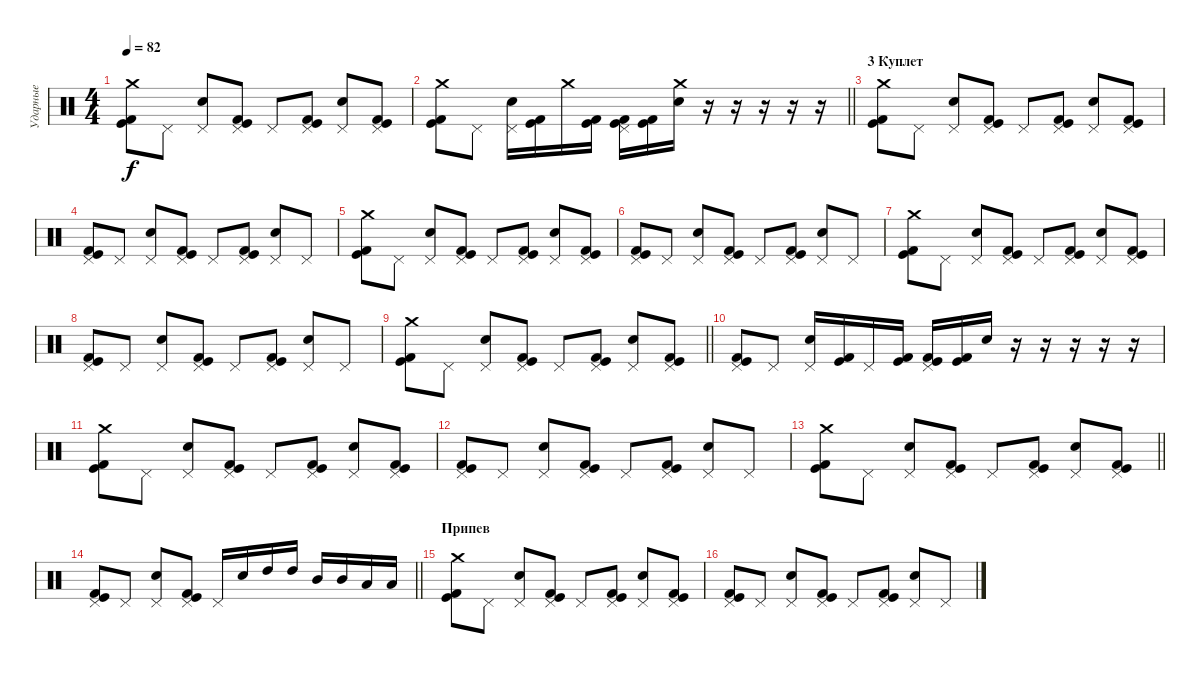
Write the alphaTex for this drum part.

\track ("Ударные" "Ударные") {instrument percussion}
\staff {score}
\articulation defaults
\ts (4 4)
\tempo 82
\clef neutral
\ks c
("Crash medium (hit)" "Kick (hit)" "Kick (hit) 2").8{dy f} "Pedal Hi-Hat (hit)".8 ("Pedal Hi-Hat (hit)" "Electric Snare (hit)").8 ("Pedal Hi-Hat (hit)" "Kick (hit)" "Kick (hit) 2").8 "Pedal Hi-Hat (hit)".8 ("Pedal Hi-Hat (hit)" "Kick (hit)" "Kick (hit) 2").8 ("Pedal Hi-Hat (hit)" "Electric Snare (hit)").8 ("Pedal Hi-Hat (hit)" "Kick (hit)" "Kick (hit) 2").8 |
\barLineRight lightlight
("Crash medium (hit)" "Kick (hit)" "Kick (hit) 2").8 "Pedal Hi-Hat (hit)".8 ("Pedal Hi-Hat (hit)" "Electric Snare (hit)").16 ("Kick (hit)" "Kick (hit) 2").16 "Crash medium (hit)".16 ("Kick (hit)" "Kick (hit) 2").16 ("Pedal Hi-Hat (hit)" "Kick (hit)" "Kick (hit) 2").16 ("Kick (hit)" "Kick (hit) 2").16 ("Crash medium (hit)" "Electric Snare (hit)").16 r.16 r.16 r.16 r.16 r.16 |
\section ("" "3 Куплет")
("Crash medium (hit)" "Kick (hit)" "Kick (hit) 2").8 "Pedal Hi-Hat (hit)".8 ("Pedal Hi-Hat (hit)" "Electric Snare (hit)").8 ("Pedal Hi-Hat (hit)" "Kick (hit)" "Kick (hit) 2").8 "Pedal Hi-Hat (hit)".8 ("Pedal Hi-Hat (hit)" "Kick (hit)" "Kick (hit) 2").8 ("Pedal Hi-Hat (hit)" "Electric Snare (hit)").8 ("Pedal Hi-Hat (hit)" "Kick (hit)" "Kick (hit) 2").8 |
("Pedal Hi-Hat (hit)" "Kick (hit)" "Kick (hit) 2").8 "Pedal Hi-Hat (hit)".8 ("Pedal Hi-Hat (hit)" "Electric Snare (hit)").8 ("Pedal Hi-Hat (hit)" "Kick (hit)" "Kick (hit) 2").8 "Pedal Hi-Hat (hit)".8 ("Pedal Hi-Hat (hit)" "Kick (hit)" "Kick (hit) 2").8 ("Pedal Hi-Hat (hit)" "Electric Snare (hit)").8 "Pedal Hi-Hat (hit)".8 |
("Crash medium (hit)" "Kick (hit)" "Kick (hit) 2").8 "Pedal Hi-Hat (hit)".8 ("Pedal Hi-Hat (hit)" "Electric Snare (hit)").8 ("Pedal Hi-Hat (hit)" "Kick (hit)" "Kick (hit) 2").8 "Pedal Hi-Hat (hit)".8 ("Pedal Hi-Hat (hit)" "Kick (hit)" "Kick (hit) 2").8 ("Pedal Hi-Hat (hit)" "Electric Snare (hit)").8 ("Pedal Hi-Hat (hit)" "Kick (hit)" "Kick (hit) 2").8 |
("Pedal Hi-Hat (hit)" "Kick (hit)" "Kick (hit) 2").8 "Pedal Hi-Hat (hit)".8 ("Pedal Hi-Hat (hit)" "Electric Snare (hit)").8 ("Pedal Hi-Hat (hit)" "Kick (hit)" "Kick (hit) 2").8 "Pedal Hi-Hat (hit)".8 ("Pedal Hi-Hat (hit)" "Kick (hit)" "Kick (hit) 2").8 ("Pedal Hi-Hat (hit)" "Electric Snare (hit)").8 "Pedal Hi-Hat (hit)".8 |
("Crash medium (hit)" "Kick (hit)" "Kick (hit) 2").8 "Pedal Hi-Hat (hit)".8 ("Pedal Hi-Hat (hit)" "Electric Snare (hit)").8 ("Pedal Hi-Hat (hit)" "Kick (hit)" "Kick (hit) 2").8 "Pedal Hi-Hat (hit)".8 ("Pedal Hi-Hat (hit)" "Kick (hit)" "Kick (hit) 2").8 ("Pedal Hi-Hat (hit)" "Electric Snare (hit)").8 ("Pedal Hi-Hat (hit)" "Kick (hit)" "Kick (hit) 2").8 |
("Pedal Hi-Hat (hit)" "Kick (hit)" "Kick (hit) 2").8 "Pedal Hi-Hat (hit)".8 ("Pedal Hi-Hat (hit)" "Electric Snare (hit)").8 ("Pedal Hi-Hat (hit)" "Kick (hit)" "Kick (hit) 2").8 "Pedal Hi-Hat (hit)".8 ("Pedal Hi-Hat (hit)" "Kick (hit)" "Kick (hit) 2").8 ("Pedal Hi-Hat (hit)" "Electric Snare (hit)").8 "Pedal Hi-Hat (hit)".8 |
\barLineRight lightlight
("Crash medium (hit)" "Kick (hit)" "Kick (hit) 2").8 "Pedal Hi-Hat (hit)".8 ("Pedal Hi-Hat (hit)" "Electric Snare (hit)").8 ("Pedal Hi-Hat (hit)" "Kick (hit)" "Kick (hit) 2").8 "Pedal Hi-Hat (hit)".8 ("Pedal Hi-Hat (hit)" "Kick (hit)" "Kick (hit) 2").8 ("Pedal Hi-Hat (hit)" "Electric Snare (hit)").8 ("Pedal Hi-Hat (hit)" "Kick (hit)" "Kick (hit) 2").8 |
("Pedal Hi-Hat (hit)" "Kick (hit)" "Kick (hit) 2").8 "Pedal Hi-Hat (hit)".8 ("Pedal Hi-Hat (hit)" "Electric Snare (hit)").16 ("Kick (hit)" "Kick (hit) 2").16 "Pedal Hi-Hat (hit)".16 ("Kick (hit)" "Kick (hit) 2").16 ("Pedal Hi-Hat (hit)" "Kick (hit)" "Kick (hit) 2").16 ("Kick (hit)" "Kick (hit) 2").16 "Electric Snare (hit)".16 r.16 r.16 r.16 r.16 r.16 |
("Crash medium (hit)" "Kick (hit)" "Kick (hit) 2").8 "Pedal Hi-Hat (hit)".8 ("Pedal Hi-Hat (hit)" "Electric Snare (hit)").8 ("Pedal Hi-Hat (hit)" "Kick (hit)" "Kick (hit) 2").8 "Pedal Hi-Hat (hit)".8 ("Pedal Hi-Hat (hit)" "Kick (hit)" "Kick (hit) 2").8 ("Pedal Hi-Hat (hit)" "Electric Snare (hit)").8 ("Pedal Hi-Hat (hit)" "Kick (hit)" "Kick (hit) 2").8 |
("Pedal Hi-Hat (hit)" "Kick (hit)" "Kick (hit) 2").8 "Pedal Hi-Hat (hit)".8 ("Pedal Hi-Hat (hit)" "Electric Snare (hit)").8 ("Pedal Hi-Hat (hit)" "Kick (hit)" "Kick (hit) 2").8 "Pedal Hi-Hat (hit)".8 ("Pedal Hi-Hat (hit)" "Kick (hit)" "Kick (hit) 2").8 ("Pedal Hi-Hat (hit)" "Electric Snare (hit)").8 "Pedal Hi-Hat (hit)".8 |
\barLineRight lightlight
("Crash medium (hit)" "Kick (hit)" "Kick (hit) 2").8 "Pedal Hi-Hat (hit)".8 ("Pedal Hi-Hat (hit)" "Electric Snare (hit)").8 ("Pedal Hi-Hat (hit)" "Kick (hit)" "Kick (hit) 2").8 "Pedal Hi-Hat (hit)".8 ("Pedal Hi-Hat (hit)" "Kick (hit)" "Kick (hit) 2").8 ("Pedal Hi-Hat (hit)" "Electric Snare (hit)").8 ("Pedal Hi-Hat (hit)" "Kick (hit)" "Kick (hit) 2").8 |
\barLineRight lightlight
("Pedal Hi-Hat (hit)" "Kick (hit)" "Kick (hit) 2").8 "Pedal Hi-Hat (hit)".8 ("Pedal Hi-Hat (hit)" "Electric Snare (hit)").8 ("Pedal Hi-Hat (hit)" "Kick (hit)" "Kick (hit) 2").8 "Pedal Hi-Hat (hit)".16 "Electric Snare (hit)".16 "High Tom (hit)".16 "High Tom (hit)".16 "Mid Tom (hit)".16 "Mid Tom (hit)".16 "Low Tom (hit)".16 "Low Tom (hit)".16 |
\section ("" "Припев")
("Crash medium (hit)" "Kick (hit)" "Kick (hit) 2").8 "Pedal Hi-Hat (hit)".8 ("Pedal Hi-Hat (hit)" "Electric Snare (hit)").8 ("Pedal Hi-Hat (hit)" "Kick (hit)" "Kick (hit) 2").8 "Pedal Hi-Hat (hit)".8 ("Pedal Hi-Hat (hit)" "Kick (hit)" "Kick (hit) 2").8 ("Pedal Hi-Hat (hit)" "Electric Snare (hit)").8 ("Pedal Hi-Hat (hit)" "Kick (hit)" "Kick (hit) 2").8 |
("Pedal Hi-Hat (hit)" "Kick (hit)" "Kick (hit) 2").8 "Pedal Hi-Hat (hit)".8 ("Pedal Hi-Hat (hit)" "Electric Snare (hit)").8 ("Pedal Hi-Hat (hit)" "Kick (hit)" "Kick (hit) 2").8 "Pedal Hi-Hat (hit)".8 ("Pedal Hi-Hat (hit)" "Kick (hit)" "Kick (hit) 2").8 ("Pedal Hi-Hat (hit)" "Electric Snare (hit)").8 "Pedal Hi-Hat (hit)".8
